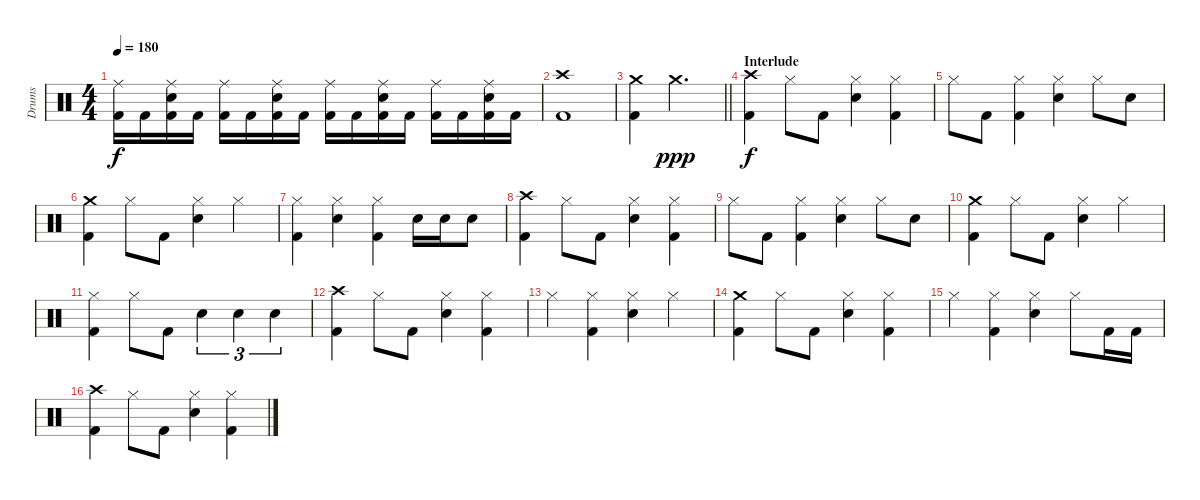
\track ("Drums " "Drums ") {instrument percussion}
\staff {score}
\articulation defaults
\ts (4 4)
\tempo 180
\clef neutral
\ks c
("Kick (hit) 2" "Ride (middle)").16{dy f} "Kick (hit) 2".16 ("Kick (hit) 2" "Ride (middle)" "Electric Snare (hit)").16 "Kick (hit) 2".16 ("Kick (hit) 2" "Ride (middle)").16 "Kick (hit) 2".16 ("Kick (hit) 2" "Ride (middle)" "Electric Snare (hit)").16 "Kick (hit) 2".16 ("Kick (hit) 2" "Ride (middle)").16 "Kick (hit) 2".16 ("Kick (hit) 2" "Ride (middle)" "Electric Snare (hit)").16 "Kick (hit) 2".16 ("Kick (hit) 2" "Ride (middle)").16 "Kick (hit) 2".16 ("Kick (hit) 2" "Ride (middle)" "Electric Snare (hit)").16 "Kick (hit) 2".16 |
("Kick (hit) 2" "Crash high (hit)").1 |
\barLineRight lightlight
("Kick (hit) 2" "Crash medium (hit)").4 "Crash medium (hit)".2{d dy ppp} |
\section ("" "Interlude")
("Kick (hit) 2" "Crash high (hit)").4{dy f} "Hi-Hat (closed)".8 "Kick (hit) 2".8 ("Hi-Hat (closed)" "Electric Snare (hit)").4 ("Kick (hit) 2" "Hi-Hat (closed)").4 |
"Hi-Hat (closed)".8 "Kick (hit) 2".8 ("Kick (hit) 2" "Hi-Hat (closed)").4 ("Hi-Hat (closed)" "Electric Snare (hit)").4 "Hi-Hat (closed)".8 "Electric Snare (hit)".8 |
("Kick (hit) 2" "Crash medium (hit)").4 "Hi-Hat (closed)".8 "Kick (hit) 2".8 ("Hi-Hat (closed)" "Electric Snare (hit)").4 "Hi-Hat (closed)".4 |
("Kick (hit) 2" "Hi-Hat (closed)").4 ("Hi-Hat (closed)" "Electric Snare (hit)").4 ("Kick (hit) 2" "Hi-Hat (closed)").4 "Electric Snare (hit)".16 "Electric Snare (hit)".16 "Electric Snare (hit)".8 |
("Kick (hit) 2" "Crash high (hit)").4 "Hi-Hat (closed)".8 "Kick (hit) 2".8 ("Hi-Hat (closed)" "Electric Snare (hit)").4 ("Kick (hit) 2" "Hi-Hat (closed)").4 |
"Hi-Hat (closed)".8 "Kick (hit) 2".8 ("Kick (hit) 2" "Hi-Hat (closed)").4 ("Hi-Hat (closed)" "Electric Snare (hit)").4 "Hi-Hat (closed)".8 "Electric Snare (hit)".8 |
("Kick (hit) 2" "Crash medium (hit)").4 "Hi-Hat (closed)".8 "Kick (hit) 2".8 ("Hi-Hat (closed)" "Electric Snare (hit)").4 "Hi-Hat (closed)".4 |
("Kick (hit) 2" "Hi-Hat (closed)").4 "Hi-Hat (closed)".8 "Kick (hit) 2".8 "Electric Snare (hit)".4{tu (3 2)} "Electric Snare (hit)".4{tu (3 2)} "Electric Snare (hit)".4{tu (3 2)} |
("Kick (hit) 2" "Crash high (hit)").4 "Hi-Hat (closed)".8 "Kick (hit) 2".8 ("Hi-Hat (closed)" "Electric Snare (hit)").4 ("Kick (hit) 2" "Hi-Hat (closed)").4 |
"Hi-Hat (closed)".4 ("Kick (hit) 2" "Hi-Hat (closed)").4 ("Hi-Hat (closed)" "Electric Snare (hit)").4 "Hi-Hat (closed)".4 |
("Kick (hit) 2" "Crash medium (hit)").4 "Hi-Hat (closed)".8 "Kick (hit) 2".8 ("Hi-Hat (closed)" "Electric Snare (hit)").4 ("Kick (hit) 2" "Hi-Hat (closed)").4 |
"Hi-Hat (closed)".4 ("Kick (hit) 2" "Hi-Hat (closed)").4 ("Hi-Hat (closed)" "Electric Snare (hit)").4 "Hi-Hat (closed)".8 "Kick (hit) 2".16 "Kick (hit) 2".16 |
("Kick (hit) 2" "Crash high (hit)").4 "Hi-Hat (closed)".8 "Kick (hit) 2".8 ("Hi-Hat (closed)" "Electric Snare (hit)").4 ("Kick (hit) 2" "Hi-Hat (closed)").4
